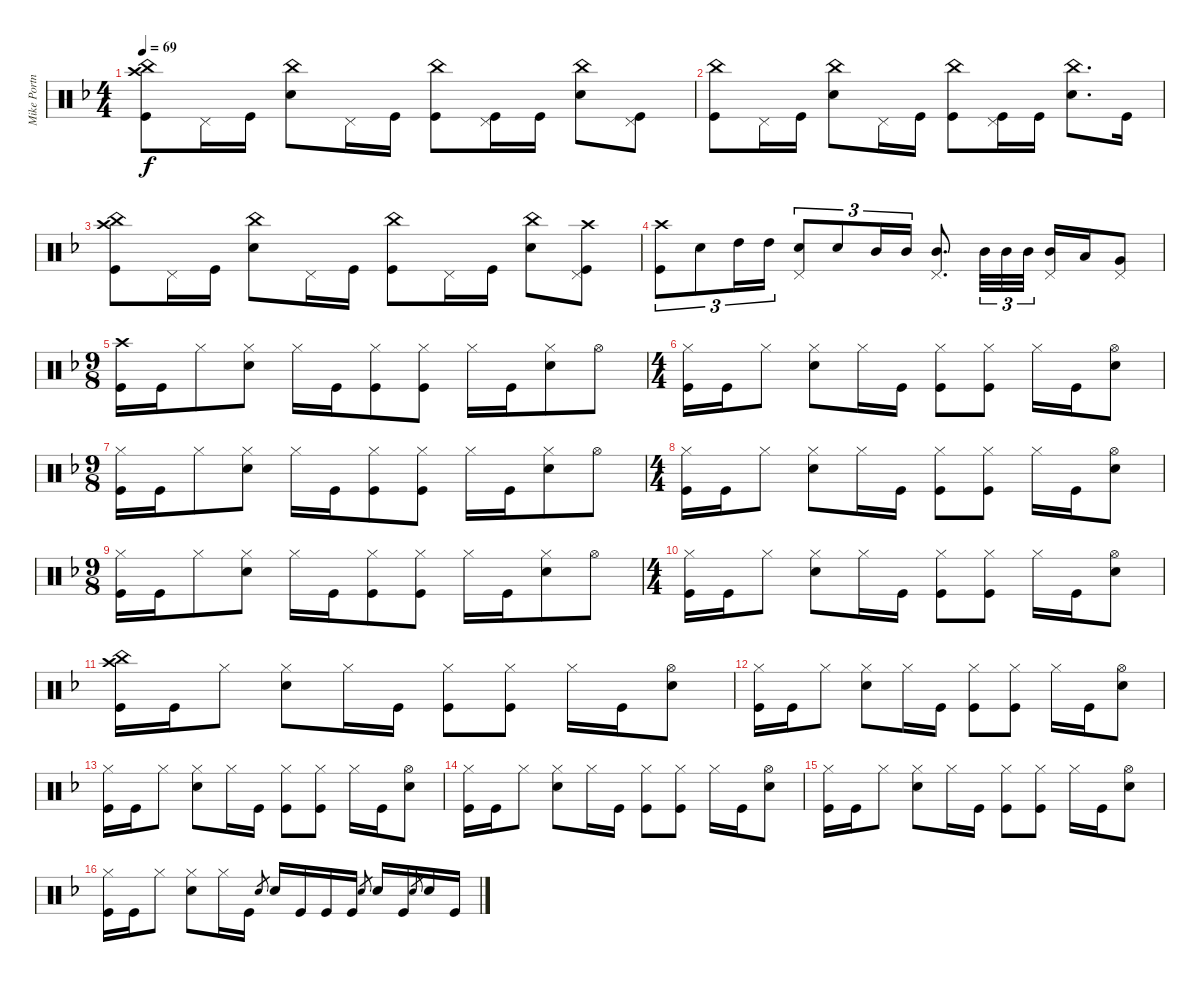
\track ("Mike Portnoy - Drums" "Mike Portn") {instrument percussion}
\staff {score}
\articulation defaults
\ts (4 4)
\tempo 69
\clef neutral
\ks dminor
("China (hit)" "Crash high (hit)" "Kick (hit)").8{dy f} "Pedal Hi-Hat (hit)".16 "Kick (hit)".16 ("China (hit)" "Snare (hit) 2").8 "Pedal Hi-Hat (hit)".16 "Kick (hit)".16 ("China (hit)" "Kick (hit)").8 ("Pedal Hi-Hat (hit)" "Kick (hit)").16 "Kick (hit)".16 ("China (hit)" "Snare (hit) 2").8 ("Pedal Hi-Hat (hit)" "Kick (hit)").8 |
("China (hit)" "Kick (hit)").8 "Pedal Hi-Hat (hit)".16 "Kick (hit)".16 ("China (hit)" "Snare (hit) 2").8 "Pedal Hi-Hat (hit)".16 "Kick (hit)".16 ("China (hit)" "Kick (hit)").8 ("Pedal Hi-Hat (hit)" "Kick (hit)").16 "Kick (hit)".16 ("China (hit)" "Snare (hit) 2").8{d} "Kick (hit)".16 |
("China (hit)" "Crash high (hit)" "Kick (hit)").8 "Pedal Hi-Hat (hit)".16 "Kick (hit)".16 ("China (hit)" "Snare (hit) 2").8 "Pedal Hi-Hat (hit)".16 "Kick (hit)".16 ("China (hit)" "Kick (hit)").8 "Pedal Hi-Hat (hit)".16 "Kick (hit)".16 ("China (hit)" "Snare (hit) 2").8 ("Crash high (hit)" "Pedal Hi-Hat (hit)" "Kick (hit)").8 |
("Crash high (hit)" "Kick (hit)").8{tu (3 2)} "Snare (hit) 2".8{tu (3 2)} "High Tom (hit)".16{tu (3 2)} "High Tom (hit)".16{tu (3 2)} ("Pedal Hi-Hat (hit)" "Snare (hit) 2").8{tu (3 2)} "Snare (hit) 2".8{tu (3 2)} "Mid Tom (hit)".16{tu (3 2)} "Mid Tom (hit)".16{tu (3 2)} ("Pedal Hi-Hat (hit)" "Mid Tom (hit)").8{d} "Mid Tom (hit)".32{tu (3 2)} "Mid Tom (hit)".32{tu (3 2)} "Mid Tom (hit)".32{tu (3 2)} ("Pedal Hi-Hat (hit)" "Mid Tom (hit)").16 "Low Tom (hit)".16 ("Pedal Hi-Hat (hit)" "Very Low Tom (hit)").8 |
\ts (9 8)
("Crash high (hit)" "Kick (hit)").16 "Kick (hit)".16 "Hi-Hat (closed)".8 ("Hi-Hat (closed)" "Snare (hit) 2").8 "Hi-Hat (closed)".16 "Kick (hit)".16 ("Hi-Hat (closed)" "Kick (hit)").8 ("Hi-Hat (closed)" "Kick (hit)").8 "Hi-Hat (closed)".16 "Kick (hit)".16 ("Hi-Hat (closed)" "Snare (hit) 2").8 "Hi-Hat (open)".8 |
\ts (4 4)
("Hi-Hat (closed)" "Kick (hit)").16 "Kick (hit)".16 "Hi-Hat (closed)".8 ("Hi-Hat (closed)" "Snare (hit) 2").8 "Hi-Hat (closed)".16 "Kick (hit)".16 ("Hi-Hat (closed)" "Kick (hit)").8 ("Hi-Hat (closed)" "Kick (hit)").8 "Hi-Hat (closed)".16 "Kick (hit)".16 ("Hi-Hat (open)" "Snare (hit) 2").8 |
\ts (9 8)
("Hi-Hat (closed)" "Kick (hit)").16 "Kick (hit)".16 "Hi-Hat (closed)".8 ("Hi-Hat (closed)" "Snare (hit) 2").8 "Hi-Hat (closed)".16 "Kick (hit)".16 ("Hi-Hat (closed)" "Kick (hit)").8 ("Hi-Hat (closed)" "Kick (hit)").8 "Hi-Hat (closed)".16 "Kick (hit)".16 ("Hi-Hat (closed)" "Snare (hit) 2").8 "Hi-Hat (open)".8 |
\ts (4 4)
("Hi-Hat (closed)" "Kick (hit)").16 "Kick (hit)".16 "Hi-Hat (closed)".8 ("Hi-Hat (closed)" "Snare (hit) 2").8 "Hi-Hat (closed)".16 "Kick (hit)".16 ("Hi-Hat (closed)" "Kick (hit)").8 ("Hi-Hat (closed)" "Kick (hit)").8 "Hi-Hat (closed)".16 "Kick (hit)".16 ("Hi-Hat (open)" "Snare (hit) 2").8 |
\ts (9 8)
("Hi-Hat (closed)" "Kick (hit)").16 "Kick (hit)".16 "Hi-Hat (closed)".8 ("Hi-Hat (closed)" "Snare (hit) 2").8 "Hi-Hat (closed)".16 "Kick (hit)".16 ("Hi-Hat (closed)" "Kick (hit)").8 ("Hi-Hat (closed)" "Kick (hit)").8 "Hi-Hat (closed)".16 "Kick (hit)".16 ("Hi-Hat (closed)" "Snare (hit) 2").8 "Hi-Hat (open)".8 |
\ts (4 4)
("Hi-Hat (closed)" "Kick (hit)").16 "Kick (hit)".16 "Hi-Hat (closed)".8 ("Hi-Hat (closed)" "Snare (hit) 2").8 "Hi-Hat (closed)".16 "Kick (hit)".16 ("Hi-Hat (closed)" "Kick (hit)").8 ("Hi-Hat (closed)" "Kick (hit)").8 "Hi-Hat (closed)".16 "Kick (hit)".16 ("Hi-Hat (open)" "Snare (hit) 2").8 |
("Crash high (hit)" "China (hit)" "Kick (hit)").16 "Kick (hit)".16 "Hi-Hat (closed)".8 ("Hi-Hat (closed)" "Snare (hit) 2").8 "Hi-Hat (closed)".16 "Kick (hit)".16 ("Hi-Hat (closed)" "Kick (hit)").8 ("Hi-Hat (closed)" "Kick (hit)").8 "Hi-Hat (closed)".16 "Kick (hit)".16 ("Hi-Hat (open)" "Snare (hit) 2").8 |
("Hi-Hat (closed)" "Kick (hit)").16 "Kick (hit)".16 "Hi-Hat (closed)".8 ("Hi-Hat (closed)" "Snare (hit) 2").8 "Hi-Hat (closed)".16 "Kick (hit)".16 ("Hi-Hat (closed)" "Kick (hit)").8 ("Hi-Hat (closed)" "Kick (hit)").8 "Hi-Hat (closed)".16 "Kick (hit)".16 ("Hi-Hat (open)" "Snare (hit) 2").8 |
("Hi-Hat (closed)" "Kick (hit)").16 "Kick (hit)".16 "Hi-Hat (closed)".8 ("Hi-Hat (closed)" "Snare (hit) 2").8 "Hi-Hat (closed)".16 "Kick (hit)".16 ("Hi-Hat (closed)" "Kick (hit)").8 ("Hi-Hat (closed)" "Kick (hit)").8 "Hi-Hat (closed)".16 "Kick (hit)".16 ("Hi-Hat (open)" "Snare (hit) 2").8 |
("Hi-Hat (closed)" "Kick (hit)").16 "Kick (hit)".16 "Hi-Hat (closed)".8 ("Hi-Hat (closed)" "Snare (hit) 2").8 "Hi-Hat (closed)".16 "Kick (hit)".16 ("Hi-Hat (closed)" "Kick (hit)").8 ("Hi-Hat (closed)" "Kick (hit)").8 "Hi-Hat (closed)".16 "Kick (hit)".16 ("Hi-Hat (open)" "Snare (hit) 2").8 |
("Hi-Hat (closed)" "Kick (hit)").16 "Kick (hit)".16 "Hi-Hat (closed)".8 ("Hi-Hat (closed)" "Snare (hit) 2").8 "Hi-Hat (closed)".16 "Kick (hit)".16 ("Hi-Hat (closed)" "Kick (hit)").8 ("Hi-Hat (closed)" "Kick (hit)").8 "Hi-Hat (closed)".16 "Kick (hit)".16 ("Hi-Hat (open)" "Snare (hit) 2").8 |
("Hi-Hat (closed)" "Kick (hit)").16 "Kick (hit)".16 "Hi-Hat (closed)".8 ("Hi-Hat (closed)" "Snare (hit) 2").8 "Hi-Hat (closed)".16 "Kick (hit)".16 "Snare (hit) 2".8{gr} "Snare (hit) 2".16 "Kick (hit)".16 "Kick (hit)".16 "Kick (hit)".16 "Snare (hit) 2".8{gr} "Snare (hit) 2".16 "Kick (hit)".16 "Snare (hit) 2".8{gr} "Snare (hit) 2".16 "Kick (hit)".16
